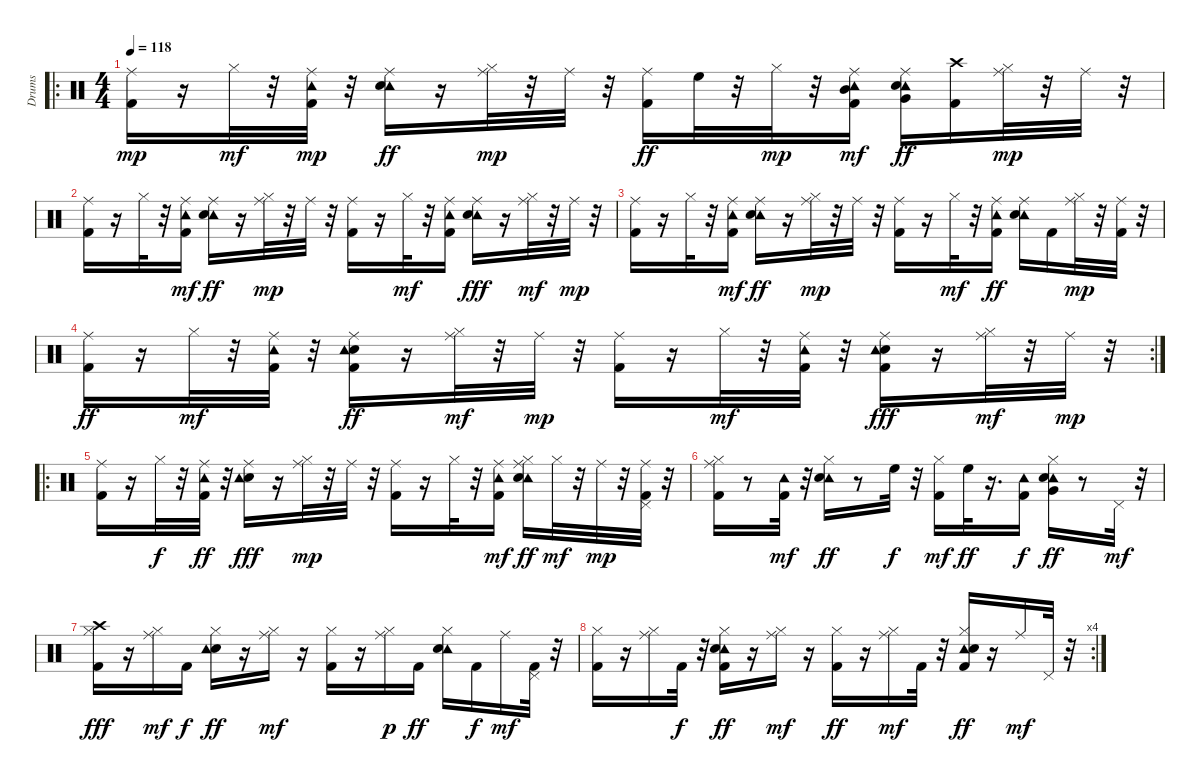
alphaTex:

\track ("Drums" "Drums") {instrument percussion}
\staff {score}
\articulation defaults
\ro
\ts (4 4)
\tempo 118
\clef neutral
\ks c
("Ride (middle)" "Kick (hit) 2").16{dy mp} r.16 "Hi-Hat (closed)".32{dy mf} r.32 ("Kick (hit) 2" "Ride (middle)" "Tambourine (hit)").32{dy mp} r.32 ("Ride (middle)" "Tambourine (hit)" "Electric Snare (hit)").16{dy ff} r.16 ("Hi-Hat (closed)" "Ride (middle)").32{dy mp} r.32 "Ride (middle)".32 r.32 ("Ride (middle)" "Kick (hit) 2").16{dy ff} "High Floor Tom (hit)".32 r.32 "Hi-Hat (closed)".32{dy mp} r.32 ("Kick (hit) 2" "Ride (middle)" "Tambourine (hit)" "Mid Tom (hit)").16{dy mf} ("Ride (middle)" "Very Low Tom (hit)" "Tambourine (hit)" "Electric Snare (hit)").16{dy ff} ("Kick (hit) 2" "Crash high (hit)").16 ("Ride (middle)" "Hi-Hat (closed)").32{dy mp} r.32 "Ride (middle)".32 r.32 |
("Kick (hit) 2" "Ride (middle)").16 r.16 "Hi-Hat (closed)".32 r.32 ("Kick (hit) 2" "Ride (middle)" "Tambourine (hit)").16{dy mf} ("Ride (middle)" "Tambourine (hit)" "Electric Snare (hit)").16{dy ff} r.16 ("Ride (middle)" "Hi-Hat (closed)").32{dy mp} r.32 "Ride (middle)".32 r.32 ("Ride (middle)" "Kick (hit) 2").16 r.16 "Hi-Hat (closed)".32{dy mf} r.32 ("Tambourine (hit)" "Kick (hit) 2" "Ride (middle)").16 ("Ride (middle)" "Tambourine (hit)" "Electric Snare (hit)").16{dy fff} r.16 ("Ride (middle)" "Hi-Hat (closed)").32{dy mf} r.32 "Ride (middle)".32{dy mp} r.32 |
("Kick (hit) 2" "Ride (middle)").16 r.16 "Hi-Hat (closed)".32 r.32 ("Ride (middle)" "Kick (hit) 2" "Tambourine (hit)").16{dy mf} ("Ride (middle)" "Tambourine (hit)" "Electric Snare (hit)").16{dy ff} r.16 ("Hi-Hat (closed)" "Ride (middle)").32{dy mp} r.32 "Ride (middle)".32 r.32 ("Kick (hit) 2" "Ride (middle)").16 r.16 "Hi-Hat (closed)".32{dy mf} r.32 ("Ride (middle)" "Kick (hit) 2" "Tambourine (hit)").16{dy ff} ("Ride (middle)" "Tambourine (hit)" "Electric Snare (hit)").16 "Kick (hit) 2".16 ("Hi-Hat (closed)" "Ride (middle)").32{dy mp} r.32 ("Kick (hit) 2" "Ride (middle)").32 r.32 |
\rc 2
("Ride (middle)" "Kick (hit) 2").16{dy ff} r.16 "Hi-Hat (closed)".32{dy mf} r.32 ("Kick (hit) 2" "Ride (middle)" "Tambourine (hit)").32 r.32 ("Ride (middle)" "Kick (hit) 2" "Electric Snare (hit)" "Tambourine (hit)").16{dy ff} r.16 ("Ride (middle)" "Hi-Hat (closed)").32{dy mf} r.32 "Ride (middle)".32{dy mp} r.32 ("Kick (hit) 2" "Ride (middle)").16 r.16 "Hi-Hat (closed)".32{dy mf} r.32 ("Kick (hit) 2" "Ride (middle)" "Tambourine (hit)").32 r.32 ("Ride (middle)" "Kick (hit) 2" "Electric Snare (hit)" "Tambourine (hit)").16{dy fff} r.16 ("Ride (middle)" "Hi-Hat (closed)").32{dy mf} r.32 "Ride (middle)".32{dy mp} r.32 |
\ro
("Kick (hit) 2" "Ride (middle)").16 r.16 "Hi-Hat (closed)".32{dy f} r.32 ("Tambourine (hit)" "Ride (middle)" "Kick (hit) 2").32{dy ff} r.32 ("Ride (middle)" "Electric Snare (hit)" "Tambourine (hit)").16{dy fff} r.16 ("Hi-Hat (closed)" "Ride (middle)").32{dy mp} r.32 "Ride (middle)".32 r.32 ("Ride (middle)" "Kick (hit) 2").16 r.16 "Hi-Hat (closed)".32 r.32 ("Ride (middle)" "Kick (hit) 2" "Tambourine (hit)").16{dy mf} ("Ride (middle)" "Hi-Hat (closed)" "Tambourine (hit)" "Electric Snare (hit)").16{dy ff} "Hi-Hat (closed)".32{dy mf} r.32 "Ride (middle)".32{dy mp} r.32 ("Pedal Hi-Hat (hit)" "Kick (hit) 2" "Ride (middle)").32 r.32 |
("Ride (middle)" "Kick (hit) 2" "Hi-Hat (closed)").16 r.8 ("Tambourine (hit)" "Kick (hit) 2").32{dy mf} r.32 ("Hi-Hat (closed)" "Tambourine (hit)" "Electric Snare (hit)").16{dy ff} r.8 "High Floor Tom (hit)".32{dy f} r.32 ("Kick (hit) 2" "Hi-Hat (closed)").16{dy mf} "High Floor Tom (hit)".32{dy ff} r.16{d} ("Kick (hit) 2" "Tambourine (hit)").16{dy f} ("Very Low Tom (hit)" "Hi-Hat (closed)" "Tambourine (hit)" "Electric Snare (hit)").16{dy ff} r.8 "Pedal Hi-Hat (hit)".32{dy mf} r.32 |
("Kick (hit) 2" "Hi-Hat (closed)" "Crash high (hit)").16{dy fff} r.16 ("Hi-Hat (closed)" "Ride (middle)").16{dy mf} "Kick (hit) 2".16{dy f} ("Electric Snare (hit)" "Hi-Hat (closed)" "Tambourine (hit)").16{dy ff} r.16 ("Ride (middle)" "Hi-Hat (closed)").16{dy mf} r.16 ("Kick (hit) 2" "Hi-Hat (closed)").16 r.16 ("Ride (middle)" "Hi-Hat (closed)").16{dy p} "Kick (hit) 2".16{dy ff} ("Hi-Hat (closed)" "Tambourine (hit)" "Electric Snare (hit)").16 "Kick (hit) 2".16{dy f} "Ride (middle)".16{dy mf} ("Kick (hit) 2" "Pedal Hi-Hat (hit)").32 r.32 |
\rc 4
("Hi-Hat (closed)" "Kick (hit) 2").16 r.16 ("Ride (middle)" "Hi-Hat (closed)").16 "Kick (hit) 2".32{dy f} r.32 ("Tambourine (hit)" "Kick (hit) 2" "Hi-Hat (closed)" "Electric Snare (hit)").16{dy ff} r.16 ("Hi-Hat (closed)" "Ride (middle)").16{dy mf} r.16 ("Kick (hit) 2" "Hi-Hat (closed)").16{dy ff} r.16 ("Hi-Hat (closed)" "Ride (middle)").16{dy mf} "Kick (hit) 2".32 r.32 ("Kick (hit) 2" "Tambourine (hit)" "Hi-Hat (closed)" "Electric Snare (hit)").16{dy ff} r.16 "Ride (middle)".16{dy mf} "Pedal Hi-Hat (hit)".32 r.32
